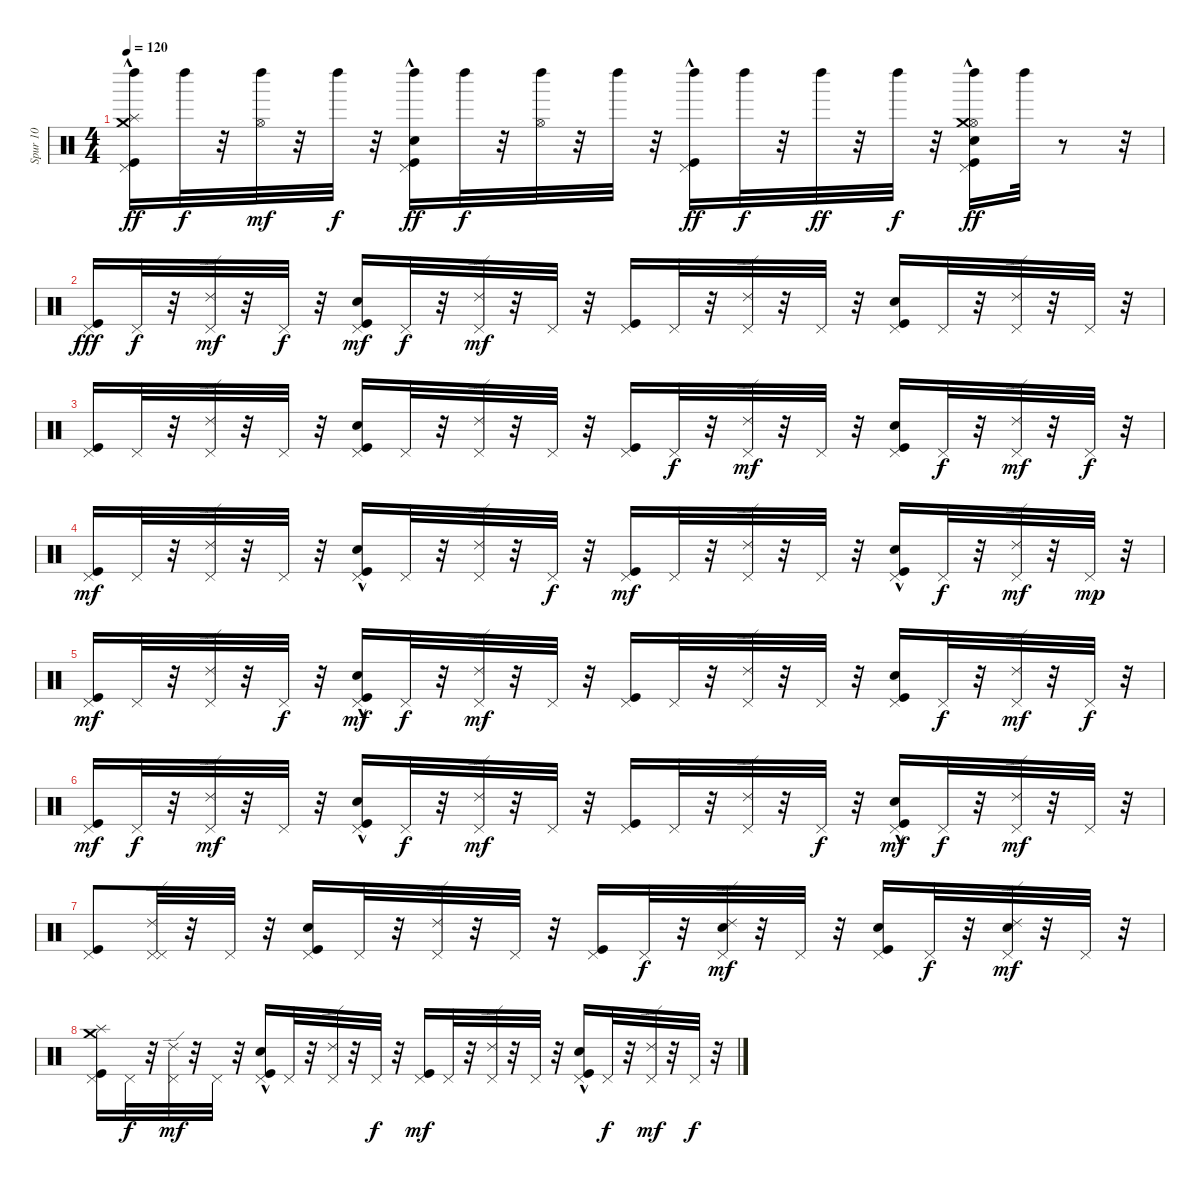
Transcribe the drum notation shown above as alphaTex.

\track ("Spur 10" "Spur 10") {instrument percussion}
\staff {score}
\articulation defaults
\ts (4 4)
\tempo 120
\clef neutral
\ks c
("Kick (hit)" "Pedal Hi-Hat (hit)"{hac} "Left Maraca (hit)" "Crash medium (hit)" "Splash (hit)"{hac}).16{dy ff} "Left Maraca (hit)".32{dy f} r.32 ("Hi-Hat (open)" "Left Maraca (hit)").32{dy mf} r.32 "Left Maraca (hit)".32{dy f} r.32 ("Snare (hit) 2" "Kick (hit)" "Pedal Hi-Hat (hit)"{hac} "Left Maraca (hit)").16{dy ff} "Left Maraca (hit)".32{dy f} r.32 ("Hi-Hat (open)" "Left Maraca (hit)").32 r.32 "Left Maraca (hit)".32 r.32 ("Kick (hit)" "Pedal Hi-Hat (hit)"{hac} "Left Maraca (hit)").16{dy ff} "Left Maraca (hit)".32{dy f} r.32 "Left Maraca (hit)".32{dy ff} r.32 "Left Maraca (hit)".32{dy f} r.32 ("Kick (hit)"{hac} "Snare (hit) 2"{hac} "Hi-Hat (open)" "Pedal Hi-Hat (hit)" "Left Maraca (hit)" "Crash medium (hit)").16{dy ff} "Left Maraca (hit)".32 r.8 r.32 |
("Kick (hit)" "Pedal Hi-Hat (hit)").16{dy fff} "Pedal Hi-Hat (hit)".32{dy f} r.32 ("Ride (edge) 2" "Pedal Hi-Hat (hit)").32{dy mf} r.32 "Pedal Hi-Hat (hit)".32{dy f} r.32 ("Snare (hit) 2" "Kick (hit)" "Pedal Hi-Hat (hit)").16{dy mf} "Pedal Hi-Hat (hit)".32{dy f} r.32 ("Ride (edge) 2" "Pedal Hi-Hat (hit)").32{dy mf} r.32 "Pedal Hi-Hat (hit)".32 r.32 ("Kick (hit)" "Pedal Hi-Hat (hit)").16 "Pedal Hi-Hat (hit)".32 r.32 ("Ride (edge) 2" "Pedal Hi-Hat (hit)").32 r.32 "Pedal Hi-Hat (hit)".32 r.32 ("Snare (hit) 2" "Kick (hit)" "Pedal Hi-Hat (hit)").16 "Pedal Hi-Hat (hit)".32 r.32 ("Ride (edge) 2" "Pedal Hi-Hat (hit)").32 r.32 "Pedal Hi-Hat (hit)".32 r.32 |
("Kick (hit)" "Pedal Hi-Hat (hit)").16 "Pedal Hi-Hat (hit)".32 r.32 ("Ride (edge) 2" "Pedal Hi-Hat (hit)").32 r.32 "Pedal Hi-Hat (hit)".32 r.32 ("Snare (hit) 2" "Kick (hit)" "Pedal Hi-Hat (hit)").16 "Pedal Hi-Hat (hit)".32 r.32 ("Ride (edge) 2" "Pedal Hi-Hat (hit)").32 r.32 "Pedal Hi-Hat (hit)".32 r.32 ("Kick (hit)" "Pedal Hi-Hat (hit)").16 "Pedal Hi-Hat (hit)".32{dy f} r.32 ("Ride (edge) 2" "Pedal Hi-Hat (hit)").32{dy mf} r.32 "Pedal Hi-Hat (hit)".32 r.32 ("Snare (hit) 2" "Kick (hit)" "Pedal Hi-Hat (hit)").16 "Pedal Hi-Hat (hit)".32{dy f} r.32 ("Ride (edge) 2" "Pedal Hi-Hat (hit)").32{dy mf} r.32 "Pedal Hi-Hat (hit)".32{dy f} r.32 |
("Kick (hit)" "Pedal Hi-Hat (hit)").16{dy mf} "Pedal Hi-Hat (hit)".32 r.32 ("Ride (edge) 2" "Pedal Hi-Hat (hit)").32 r.32 "Pedal Hi-Hat (hit)".32 r.32 ("Snare (hit) 2"{hac} "Kick (hit)" "Pedal Hi-Hat (hit)").16 "Pedal Hi-Hat (hit)".32 r.32 ("Ride (edge) 2" "Pedal Hi-Hat (hit)").32 r.32 "Pedal Hi-Hat (hit)".32{dy f} r.32 ("Kick (hit)" "Pedal Hi-Hat (hit)").16{dy mf} "Pedal Hi-Hat (hit)".32 r.32 ("Ride (edge) 2" "Pedal Hi-Hat (hit)").32 r.32 "Pedal Hi-Hat (hit)".32 r.32 ("Kick (hit)" "Snare (hit) 2"{hac} "Pedal Hi-Hat (hit)").16 "Pedal Hi-Hat (hit)".32{dy f} r.32 ("Ride (edge) 2" "Pedal Hi-Hat (hit)").32{dy mf} r.32 "Pedal Hi-Hat (hit)".32{dy mp} r.32 |
("Kick (hit)" "Pedal Hi-Hat (hit)").16{dy mf} "Pedal Hi-Hat (hit)".32 r.32 ("Ride (edge) 2" "Pedal Hi-Hat (hit)").32 r.32 "Pedal Hi-Hat (hit)".32{dy f} r.32 ("Snare (hit) 2"{hac} "Kick (hit)" "Pedal Hi-Hat (hit)").16{dy mf} "Pedal Hi-Hat (hit)".32{dy f} r.32 ("Ride (edge) 2" "Pedal Hi-Hat (hit)").32{dy mf} r.32 "Pedal Hi-Hat (hit)".32 r.32 ("Kick (hit)" "Pedal Hi-Hat (hit)").16 "Pedal Hi-Hat (hit)".32 r.32 ("Ride (edge) 2" "Pedal Hi-Hat (hit)").32 r.32 "Pedal Hi-Hat (hit)".32 r.32 ("Snare (hit) 2" "Kick (hit)" "Pedal Hi-Hat (hit)").16 "Pedal Hi-Hat (hit)".32{dy f} r.32 ("Ride (edge) 2" "Pedal Hi-Hat (hit)").32{dy mf} r.32 "Pedal Hi-Hat (hit)".32{dy f} r.32 |
("Kick (hit)" "Pedal Hi-Hat (hit)").16{dy mf} "Pedal Hi-Hat (hit)".32{dy f} r.32 ("Ride (edge) 2" "Pedal Hi-Hat (hit)").32{dy mf} r.32 "Pedal Hi-Hat (hit)".32 r.32 ("Kick (hit)" "Snare (hit) 2"{hac} "Pedal Hi-Hat (hit)").16 "Pedal Hi-Hat (hit)".32{dy f} r.32 ("Ride (edge) 2" "Pedal Hi-Hat (hit)").32{dy mf} r.32 "Pedal Hi-Hat (hit)".32 r.32 ("Kick (hit)" "Pedal Hi-Hat (hit)").16 "Pedal Hi-Hat (hit)".32 r.32 ("Ride (edge) 2" "Pedal Hi-Hat (hit)").32 r.32 "Pedal Hi-Hat (hit)".32{dy f} r.32 ("Snare (hit) 2"{hac} "Kick (hit)" "Pedal Hi-Hat (hit)").16{dy mf} "Pedal Hi-Hat (hit)".32{dy f} r.32 ("Ride (edge) 2" "Pedal Hi-Hat (hit)").32{dy mf} r.32 "Pedal Hi-Hat (hit)".32 r.32 |
("Kick (hit)" "Pedal Hi-Hat (hit)").8 ("Ride (edge) 2" "Pedal Hi-Hat (hit)" "Pedal Hi-Hat (hit)").32 r.32 "Pedal Hi-Hat (hit)".32 r.32 ("Snare (hit) 2" "Kick (hit)" "Pedal Hi-Hat (hit)").16 "Pedal Hi-Hat (hit)".32 r.32 ("Ride (edge) 2" "Pedal Hi-Hat (hit)").32 r.32 "Pedal Hi-Hat (hit)".32 r.32 ("Kick (hit)" "Pedal Hi-Hat (hit)").16 "Pedal Hi-Hat (hit)".32{dy f} r.32 ("Snare (hit) 2" "Ride (edge) 2" "Pedal Hi-Hat (hit)").32{dy mf} r.32 "Pedal Hi-Hat (hit)".32 r.32 ("Snare (hit) 2" "Kick (hit)" "Pedal Hi-Hat (hit)").16 "Pedal Hi-Hat (hit)".32{dy f} r.32 ("Snare (hit) 2" "Ride (edge) 2" "Pedal Hi-Hat (hit)").32{dy mf} r.32 "Pedal Hi-Hat (hit)".32 r.32 |
("Kick (hit)" "Pedal Hi-Hat (hit)" "Crash medium (hit)" "Splash (hit)").16 "Pedal Hi-Hat (hit)".32{dy f} r.32 ("Ride (edge) 2" "Pedal Hi-Hat (hit)").32{dy mf} r.32 "Pedal Hi-Hat (hit)".32 r.32 ("Snare (hit) 2"{hac} "Kick (hit)"{hac} "Pedal Hi-Hat (hit)").16 "Pedal Hi-Hat (hit)".32 r.32 ("Ride (edge) 2" "Pedal Hi-Hat (hit)").32 r.32 "Pedal Hi-Hat (hit)".32{dy f} r.32 ("Kick (hit)" "Pedal Hi-Hat (hit)").16{dy mf} "Pedal Hi-Hat (hit)".32 r.32 ("Ride (edge) 2" "Pedal Hi-Hat (hit)").32 r.32 "Pedal Hi-Hat (hit)".32 r.32 ("Snare (hit) 2"{hac} "Kick (hit)" "Pedal Hi-Hat (hit)").16 "Pedal Hi-Hat (hit)".32{dy f} r.32 ("Ride (edge) 2" "Pedal Hi-Hat (hit)").32{dy mf} r.32 "Pedal Hi-Hat (hit)".32{dy f} r.32
